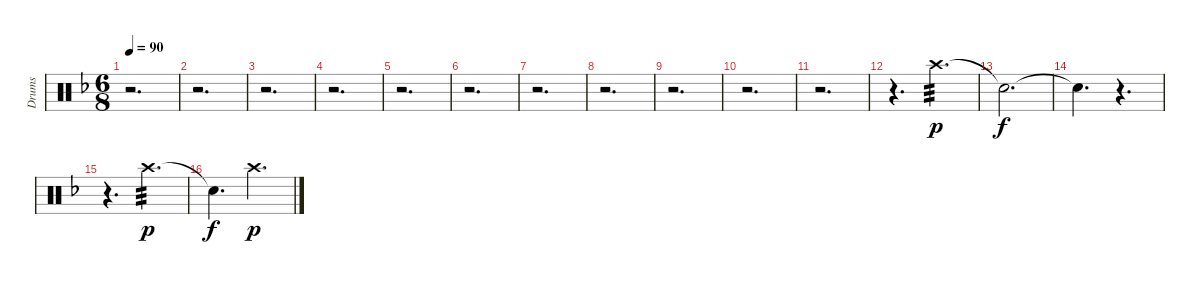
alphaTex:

\track ("Drums" "Drums") {instrument percussion bank 10}
\staff {score}
\articulation defaults
\ts (6 8)
\tempo 90
\clef neutral
\ks dminor
r.2{d dy mf} |
r.2{d} |
r.2{d} |
r.2{d} |
r.2{d} |
r.2{d} |
r.2{d} |
r.2{d} |
r.2{d} |
r.2{d} |
r.2{d} |
r.4{d volume 5} "Crash high (hit)".4{d tp 3 dy p volume 14} |
"Snare (hit)"{t}.2{d dy f} |
"Snare (hit)"{t}.4{d} r.4{d} |
r.4{d volume 5} "Crash high (hit)".4{d tp 3 dy p volume 13} |
"Snare (hit)"{t}.4{d dy f} "Crash high (hit)".4{d dy p}
